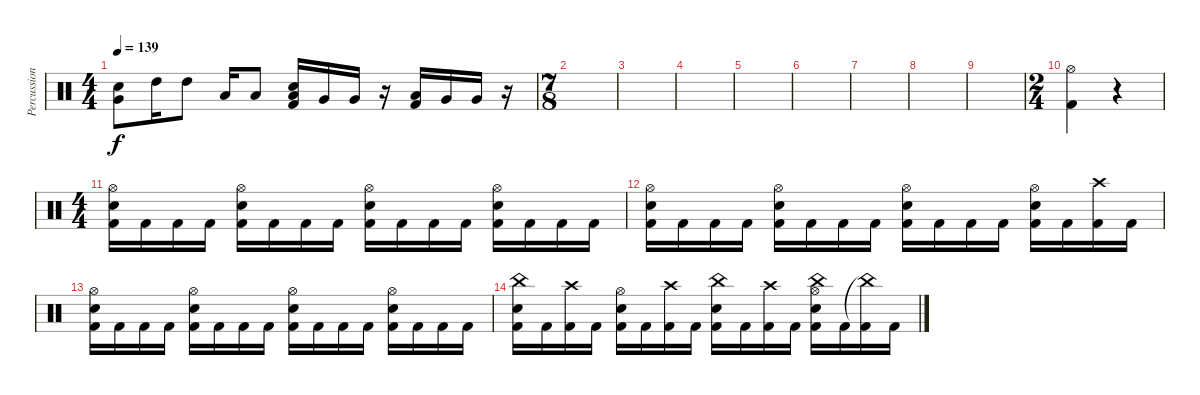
\track ("Percussion" "Percussion") {instrument percussion}
\staff {score}
\articulation defaults
\ts (4 4)
\tempo 139
\clef neutral
\ks c
("Very Low Tom (hit)" "Electric Snare (hit)").8{dy f} "High Tom (hit)".16 "High Tom (hit)".8 "Low Tom (hit)".16 "Low Tom (hit)".8 ("Low Tom (hit)" "Electric Snare (hit)" "Kick (hit) 2").16 "Very Low Tom (hit)".16 "Very Low Tom (hit)".16 r.16 ("Low Tom (hit)" "Kick (hit) 2").16 "Very Low Tom (hit)".16 "Very Low Tom (hit)".16 r.16 |
\ts (7 8)
|
|
|
|
|
|
|
|
\ts (2 4)
("Hi-Hat (open)" "Kick (hit) 2").4 r.4 |
\ts (4 4)
("Hi-Hat (open)" "Electric Snare (hit)" "Kick (hit) 2").16 "Kick (hit) 2".16 "Kick (hit) 2".16 "Kick (hit) 2".16 ("Hi-Hat (open)" "Electric Snare (hit)" "Kick (hit) 2").16 "Kick (hit) 2".16 "Kick (hit) 2".16 "Kick (hit) 2".16 ("Hi-Hat (open)" "Electric Snare (hit)" "Kick (hit) 2").16 "Kick (hit) 2".16 "Kick (hit) 2".16 "Kick (hit) 2".16 ("Hi-Hat (open)" "Electric Snare (hit)" "Kick (hit) 2").16 "Kick (hit) 2".16 "Kick (hit) 2".16 "Kick (hit) 2".16 |
("Hi-Hat (open)" "Electric Snare (hit)" "Kick (hit) 2").16 "Kick (hit) 2".16 "Kick (hit) 2".16 "Kick (hit) 2".16 ("Hi-Hat (open)" "Electric Snare (hit)" "Kick (hit) 2").16 "Kick (hit) 2".16 "Kick (hit) 2".16 "Kick (hit) 2".16 ("Hi-Hat (open)" "Electric Snare (hit)" "Kick (hit) 2").16 "Kick (hit) 2".16 "Kick (hit) 2".16 "Kick (hit) 2".16 ("Hi-Hat (open)" "Electric Snare (hit)" "Kick (hit) 2").16 "Kick (hit) 2".16 ("Crash high (hit)" "Kick (hit) 2").16 "Kick (hit) 2".16 |
("Hi-Hat (open)" "Electric Snare (hit)" "Kick (hit) 2").16 "Kick (hit) 2".16 "Kick (hit) 2".16 "Kick (hit) 2".16 ("Hi-Hat (open)" "Electric Snare (hit)" "Kick (hit) 2").16 "Kick (hit) 2".16 "Kick (hit) 2".16 "Kick (hit) 2".16 ("Hi-Hat (open)" "Electric Snare (hit)" "Kick (hit) 2").16 "Kick (hit) 2".16 "Kick (hit) 2".16 "Kick (hit) 2".16 ("Hi-Hat (open)" "Electric Snare (hit)" "Kick (hit) 2").16 "Kick (hit) 2".16 "Kick (hit) 2".16 "Kick (hit) 2".16 |
("China (hit)" "Electric Snare (hit)" "Kick (hit) 2").16 "Kick (hit) 2".16 ("Crash high (hit)" "Kick (hit) 2").16 "Kick (hit) 2".16 ("Hi-Hat (open)" "Electric Snare (hit)" "Kick (hit) 2").16 "Kick (hit) 2".16 ("Crash high (hit)" "Kick (hit) 2").16 "Kick (hit) 2".16 ("China (hit)" "Electric Snare (hit)" "Kick (hit) 2").16 "Kick (hit) 2".16 ("Crash high (hit)" "Kick (hit) 2").16 "Kick (hit) 2".16 ("Hi-Hat (open)" "China (hit)" "Electric Snare (hit)" "Kick (hit) 2").16 "Kick (hit) 2".16 ("China (hit)"{t} "Kick (hit) 2").16 "Kick (hit) 2".16
